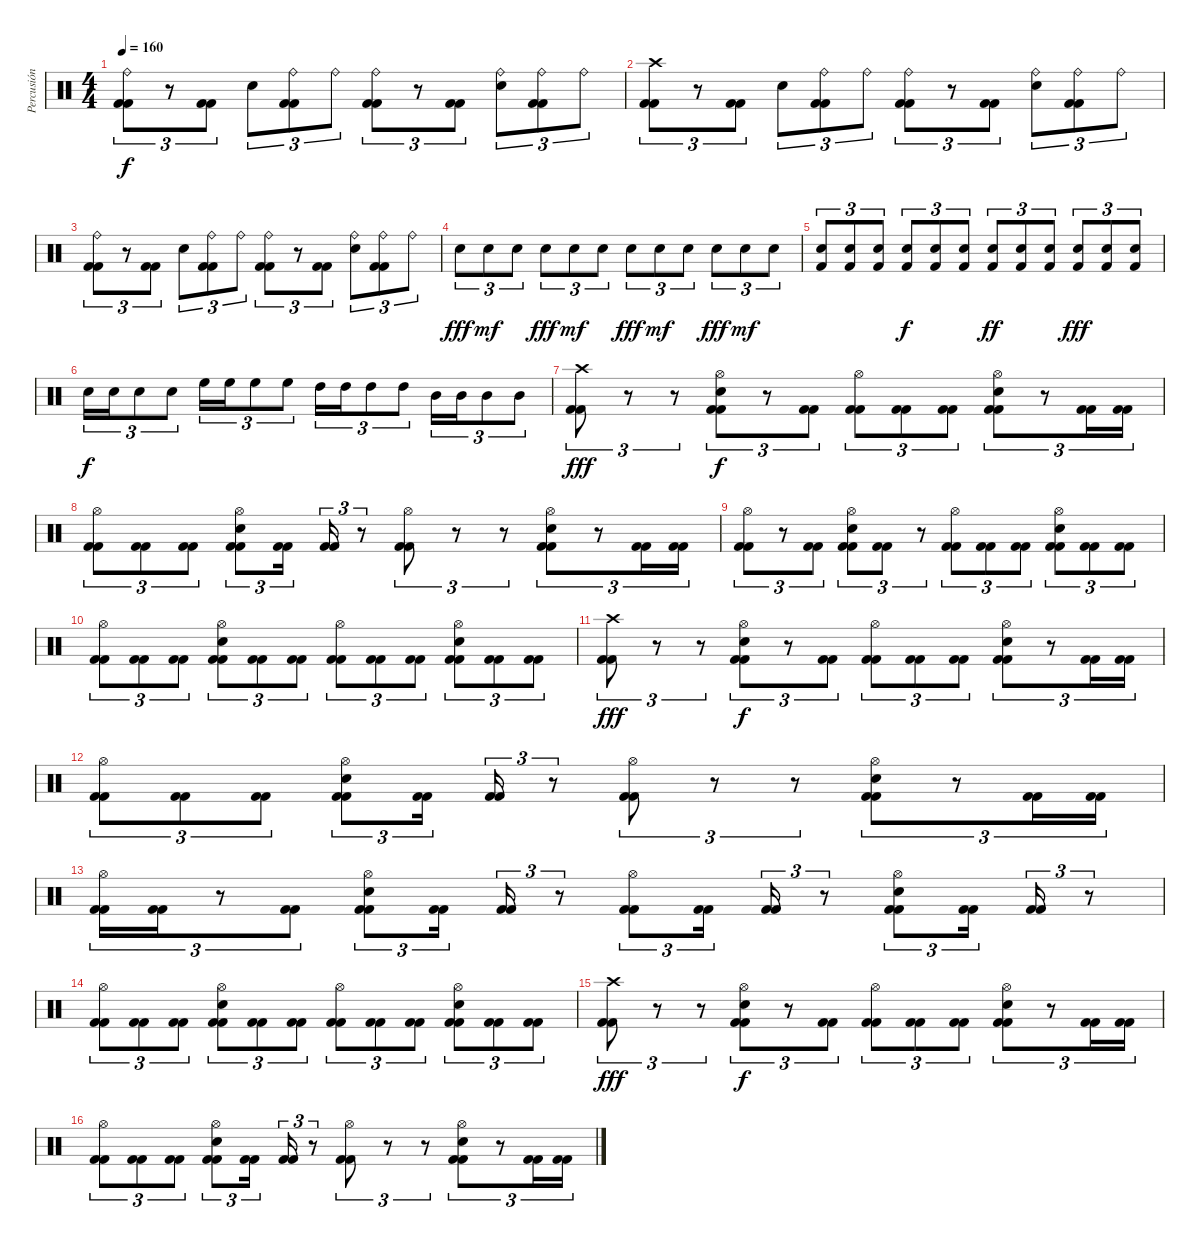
\track ("Percusión" "Percusión") {instrument percussion}
\staff {score}
\articulation defaults
\ts (4 4)
\tempo 160
\clef neutral
\ks c
("Ride (bell)" "Kick (hit) 2" "Kick (hit) 2").8{tu (3 2) dy f} r.8{tu (3 2)} ("Kick (hit) 2" "Kick (hit) 2").8{tu (3 2)} "Snare (hit) 2".8{tu (3 2)} ("Ride (bell)" "Kick (hit) 2" "Kick (hit) 2").8{tu (3 2)} "Ride (bell)".8{tu (3 2)} ("Ride (bell)" "Kick (hit) 2" "Kick (hit) 2").8{tu (3 2)} r.8{tu (3 2)} ("Kick (hit) 2" "Kick (hit) 2").8{tu (3 2)} ("Ride (bell)" "Snare (hit) 2").8{tu (3 2)} ("Ride (bell)" "Kick (hit) 2" "Kick (hit) 2").8{tu (3 2)} "Ride (bell)".8{tu (3 2)} |
("Crash high (hit)" "Kick (hit) 2" "Kick (hit) 2").8{tu (3 2)} r.8{tu (3 2)} ("Kick (hit) 2" "Kick (hit) 2").8{tu (3 2)} "Snare (hit) 2".8{tu (3 2)} ("Ride (bell)" "Kick (hit) 2" "Kick (hit) 2").8{tu (3 2)} "Ride (bell)".8{tu (3 2)} ("Ride (bell)" "Kick (hit) 2" "Kick (hit) 2").8{tu (3 2)} r.8{tu (3 2)} ("Kick (hit) 2" "Kick (hit) 2").8{tu (3 2)} ("Ride (bell)" "Snare (hit) 2").8{tu (3 2)} ("Ride (bell)" "Kick (hit) 2" "Kick (hit) 2").8{tu (3 2)} "Ride (bell)".8{tu (3 2)} |
("Ride (bell)" "Kick (hit) 2" "Kick (hit) 2").8{tu (3 2)} r.8{tu (3 2)} ("Kick (hit) 2" "Kick (hit) 2").8{tu (3 2)} "Snare (hit) 2".8{tu (3 2)} ("Ride (bell)" "Kick (hit) 2" "Kick (hit) 2").8{tu (3 2)} "Ride (bell)".8{tu (3 2)} ("Ride (bell)" "Kick (hit) 2" "Kick (hit) 2").8{tu (3 2)} r.8{tu (3 2)} ("Kick (hit) 2" "Kick (hit) 2").8{tu (3 2)} ("Ride (bell)" "Snare (hit) 2").8{tu (3 2)} ("Ride (bell)" "Kick (hit) 2" "Kick (hit) 2").8{tu (3 2)} "Ride (bell)".8{tu (3 2)} |
"Snare (hit) 2".8{tu (3 2) dy fff} "Snare (hit) 2".8{tu (3 2) dy mf} "Snare (hit) 2".8{tu (3 2)} "Snare (hit) 2".8{tu (3 2) dy fff} "Snare (hit) 2".8{tu (3 2) dy mf} "Snare (hit) 2".8{tu (3 2)} "Snare (hit) 2".8{tu (3 2) dy fff} "Snare (hit) 2".8{tu (3 2) dy mf} "Snare (hit) 2".8{tu (3 2)} "Snare (hit) 2".8{tu (3 2) dy fff} "Snare (hit) 2".8{tu (3 2) dy mf} "Snare (hit) 2".8{tu (3 2)} |
("Snare (hit) 2" "Kick (hit) 2").8{tu (3 2)} ("Snare (hit) 2" "Kick (hit) 2").8{tu (3 2)} ("Snare (hit) 2" "Kick (hit) 2").8{tu (3 2)} ("Snare (hit) 2" "Kick (hit) 2").8{tu (3 2) dy f} ("Snare (hit) 2" "Kick (hit) 2").8{tu (3 2)} ("Snare (hit) 2" "Kick (hit) 2").8{tu (3 2)} ("Snare (hit) 2" "Kick (hit) 2").8{tu (3 2) dy ff} ("Snare (hit) 2" "Kick (hit) 2").8{tu (3 2)} ("Snare (hit) 2" "Kick (hit) 2").8{tu (3 2)} ("Snare (hit) 2" "Kick (hit) 2").8{tu (3 2) dy fff} ("Snare (hit) 2" "Kick (hit) 2").8{tu (3 2)} ("Snare (hit) 2" "Kick (hit) 2").8{tu (3 2)} |
"Snare (hit) 2".16{tu (3 2) dy f} "Snare (hit) 2".16{tu (3 2)} "Snare (hit) 2".8{tu (3 2)} "Snare (hit) 2".8{tu (3 2)} "High Floor Tom (hit)".16{tu (3 2)} "High Floor Tom (hit)".16{tu (3 2)} "High Floor Tom (hit)".8{tu (3 2)} "High Floor Tom (hit)".8{tu (3 2)} "High Tom (hit)".16{tu (3 2)} "High Tom (hit)".16{tu (3 2)} "High Tom (hit)".8{tu (3 2)} "High Tom (hit)".8{tu (3 2)} "Mid Tom (hit)".16{tu (3 2)} "Mid Tom (hit)".16{tu (3 2)} "Mid Tom (hit)".8{tu (3 2)} "Mid Tom (hit)".8{tu (3 2)} |
("Crash high (hit)" "Kick (hit) 2" "Kick (hit) 2").8{tu (3 2) dy fff} r.8{tu (3 2)} r.8{tu (3 2)} ("Hi-Hat (open)" "Snare (hit) 2" "Kick (hit) 2" "Kick (hit) 2").8{tu (3 2) dy f} r.8{tu (3 2)} ("Kick (hit) 2" "Kick (hit) 2").8{tu (3 2)} ("Hi-Hat (open)" "Kick (hit) 2" "Kick (hit) 2").8{tu (3 2)} ("Kick (hit) 2" "Kick (hit) 2").8{tu (3 2)} ("Kick (hit) 2" "Kick (hit) 2").8{tu (3 2)} ("Hi-Hat (open)" "Snare (hit) 2" "Kick (hit) 2" "Kick (hit) 2").8{tu (3 2)} r.8{tu (3 2)} ("Kick (hit) 2" "Kick (hit) 2").16{tu (3 2)} ("Kick (hit) 2" "Kick (hit) 2").16{tu (3 2)} |
("Hi-Hat (open)" "Kick (hit) 2" "Kick (hit) 2").8{tu (3 2)} ("Kick (hit) 2" "Kick (hit) 2").8{tu (3 2)} ("Kick (hit) 2" "Kick (hit) 2").8{tu (3 2)} ("Hi-Hat (open)" "Snare (hit) 2" "Kick (hit) 2" "Kick (hit) 2").8{tu (3 2)} ("Kick (hit) 2" "Kick (hit) 2").16{tu (3 2)} ("Kick (hit) 2" "Kick (hit) 2").16{tu (3 2)} r.8{tu (3 2)} ("Hi-Hat (open)" "Kick (hit) 2" "Kick (hit) 2").8{tu (3 2)} r.8{tu (3 2)} r.8{tu (3 2)} ("Hi-Hat (open)" "Snare (hit) 2" "Kick (hit) 2" "Kick (hit) 2").8{tu (3 2)} r.8{tu (3 2)} ("Kick (hit) 2" "Kick (hit) 2").16{tu (3 2)} ("Kick (hit) 2" "Kick (hit) 2").16{tu (3 2)} |
("Hi-Hat (open)" "Kick (hit) 2" "Kick (hit) 2").8{tu (3 2)} r.8{tu (3 2)} ("Kick (hit) 2" "Kick (hit) 2").8{tu (3 2)} ("Hi-Hat (open)" "Snare (hit) 2" "Kick (hit) 2" "Kick (hit) 2").8{tu (3 2)} ("Kick (hit) 2" "Kick (hit) 2").8{tu (3 2)} r.8{tu (3 2)} ("Hi-Hat (open)" "Kick (hit) 2" "Kick (hit) 2").8{tu (3 2)} ("Kick (hit) 2" "Kick (hit) 2").8{tu (3 2)} ("Kick (hit) 2" "Kick (hit) 2").8{tu (3 2)} ("Hi-Hat (open)" "Snare (hit) 2" "Kick (hit) 2" "Kick (hit) 2").8{tu (3 2)} ("Kick (hit) 2" "Kick (hit) 2").8{tu (3 2)} ("Kick (hit) 2" "Kick (hit) 2").8{tu (3 2)} |
("Hi-Hat (open)" "Kick (hit) 2" "Kick (hit) 2").8{tu (3 2)} ("Kick (hit) 2" "Kick (hit) 2").8{tu (3 2)} ("Kick (hit) 2" "Kick (hit) 2").8{tu (3 2)} ("Hi-Hat (open)" "Snare (hit) 2" "Kick (hit) 2" "Kick (hit) 2").8{tu (3 2)} ("Kick (hit) 2" "Kick (hit) 2").8{tu (3 2)} ("Kick (hit) 2" "Kick (hit) 2").8{tu (3 2)} ("Hi-Hat (open)" "Kick (hit) 2" "Kick (hit) 2").8{tu (3 2)} ("Kick (hit) 2" "Kick (hit) 2").8{tu (3 2)} ("Kick (hit) 2" "Kick (hit) 2").8{tu (3 2)} ("Hi-Hat (open)" "Snare (hit) 2" "Kick (hit) 2" "Kick (hit) 2").8{tu (3 2)} ("Kick (hit) 2" "Kick (hit) 2").8{tu (3 2)} ("Kick (hit) 2" "Kick (hit) 2").8{tu (3 2)} |
("Crash high (hit)" "Kick (hit) 2" "Kick (hit) 2").8{tu (3 2) dy fff} r.8{tu (3 2)} r.8{tu (3 2)} ("Hi-Hat (open)" "Snare (hit) 2" "Kick (hit) 2" "Kick (hit) 2").8{tu (3 2) dy f} r.8{tu (3 2)} ("Kick (hit) 2" "Kick (hit) 2").8{tu (3 2)} ("Hi-Hat (open)" "Kick (hit) 2" "Kick (hit) 2").8{tu (3 2)} ("Kick (hit) 2" "Kick (hit) 2").8{tu (3 2)} ("Kick (hit) 2" "Kick (hit) 2").8{tu (3 2)} ("Hi-Hat (open)" "Snare (hit) 2" "Kick (hit) 2" "Kick (hit) 2").8{tu (3 2)} r.8{tu (3 2)} ("Kick (hit) 2" "Kick (hit) 2").16{tu (3 2)} ("Kick (hit) 2" "Kick (hit) 2").16{tu (3 2)} |
("Hi-Hat (open)" "Kick (hit) 2" "Kick (hit) 2").8{tu (3 2)} ("Kick (hit) 2" "Kick (hit) 2").8{tu (3 2)} ("Kick (hit) 2" "Kick (hit) 2").8{tu (3 2)} ("Hi-Hat (open)" "Snare (hit) 2" "Kick (hit) 2" "Kick (hit) 2").8{tu (3 2)} ("Kick (hit) 2" "Kick (hit) 2").16{tu (3 2)} ("Kick (hit) 2" "Kick (hit) 2").16{tu (3 2)} r.8{tu (3 2)} ("Hi-Hat (open)" "Kick (hit) 2" "Kick (hit) 2").8{tu (3 2)} r.8{tu (3 2)} r.8{tu (3 2)} ("Hi-Hat (open)" "Snare (hit) 2" "Kick (hit) 2" "Kick (hit) 2").8{tu (3 2)} r.8{tu (3 2)} ("Kick (hit) 2" "Kick (hit) 2").16{tu (3 2)} ("Kick (hit) 2" "Kick (hit) 2").16{tu (3 2)} |
("Hi-Hat (open)" "Kick (hit) 2" "Kick (hit) 2").16{tu (3 2)} ("Kick (hit) 2" "Kick (hit) 2").16{tu (3 2)} r.8{tu (3 2)} ("Kick (hit) 2" "Kick (hit) 2").8{tu (3 2)} ("Hi-Hat (open)" "Snare (hit) 2" "Kick (hit) 2" "Kick (hit) 2").8{tu (3 2)} ("Kick (hit) 2" "Kick (hit) 2").16{tu (3 2)} ("Kick (hit) 2" "Kick (hit) 2").16{tu (3 2)} r.8{tu (3 2)} ("Hi-Hat (open)" "Kick (hit) 2" "Kick (hit) 2").8{tu (3 2)} ("Kick (hit) 2" "Kick (hit) 2").16{tu (3 2)} ("Kick (hit) 2" "Kick (hit) 2").16{tu (3 2)} r.8{tu (3 2)} ("Hi-Hat (open)" "Snare (hit) 2" "Kick (hit) 2" "Kick (hit) 2").8{tu (3 2)} ("Kick (hit) 2" "Kick (hit) 2").16{tu (3 2)} ("Kick (hit) 2" "Kick (hit) 2").16{tu (3 2)} r.8{tu (3 2)} |
("Hi-Hat (open)" "Kick (hit) 2" "Kick (hit) 2").8{tu (3 2)} ("Kick (hit) 2" "Kick (hit) 2").8{tu (3 2)} ("Kick (hit) 2" "Kick (hit) 2").8{tu (3 2)} ("Hi-Hat (open)" "Snare (hit) 2" "Kick (hit) 2" "Kick (hit) 2").8{tu (3 2)} ("Kick (hit) 2" "Kick (hit) 2").8{tu (3 2)} ("Kick (hit) 2" "Kick (hit) 2").8{tu (3 2)} ("Hi-Hat (open)" "Kick (hit) 2" "Kick (hit) 2").8{tu (3 2)} ("Kick (hit) 2" "Kick (hit) 2").8{tu (3 2)} ("Kick (hit) 2" "Kick (hit) 2").8{tu (3 2)} ("Hi-Hat (open)" "Snare (hit) 2" "Kick (hit) 2" "Kick (hit) 2").8{tu (3 2)} ("Kick (hit) 2" "Kick (hit) 2").8{tu (3 2)} ("Kick (hit) 2" "Kick (hit) 2").8{tu (3 2)} |
("Crash high (hit)" "Kick (hit) 2" "Kick (hit) 2").8{tu (3 2) dy fff} r.8{tu (3 2)} r.8{tu (3 2)} ("Hi-Hat (open)" "Snare (hit) 2" "Kick (hit) 2" "Kick (hit) 2").8{tu (3 2) dy f} r.8{tu (3 2)} ("Kick (hit) 2" "Kick (hit) 2").8{tu (3 2)} ("Hi-Hat (open)" "Kick (hit) 2" "Kick (hit) 2").8{tu (3 2)} ("Kick (hit) 2" "Kick (hit) 2").8{tu (3 2)} ("Kick (hit) 2" "Kick (hit) 2").8{tu (3 2)} ("Hi-Hat (open)" "Snare (hit) 2" "Kick (hit) 2" "Kick (hit) 2").8{tu (3 2)} r.8{tu (3 2)} ("Kick (hit) 2" "Kick (hit) 2").16{tu (3 2)} ("Kick (hit) 2" "Kick (hit) 2").16{tu (3 2)} |
("Hi-Hat (open)" "Kick (hit) 2" "Kick (hit) 2").8{tu (3 2)} ("Kick (hit) 2" "Kick (hit) 2").8{tu (3 2)} ("Kick (hit) 2" "Kick (hit) 2").8{tu (3 2)} ("Hi-Hat (open)" "Snare (hit) 2" "Kick (hit) 2" "Kick (hit) 2").8{tu (3 2)} ("Kick (hit) 2" "Kick (hit) 2").16{tu (3 2)} ("Kick (hit) 2" "Kick (hit) 2").16{tu (3 2)} r.8{tu (3 2)} ("Hi-Hat (open)" "Kick (hit) 2" "Kick (hit) 2").8{tu (3 2)} r.8{tu (3 2)} r.8{tu (3 2)} ("Hi-Hat (open)" "Snare (hit) 2" "Kick (hit) 2" "Kick (hit) 2").8{tu (3 2)} r.8{tu (3 2)} ("Kick (hit) 2" "Kick (hit) 2").16{tu (3 2)} ("Kick (hit) 2" "Kick (hit) 2").16{tu (3 2)}
